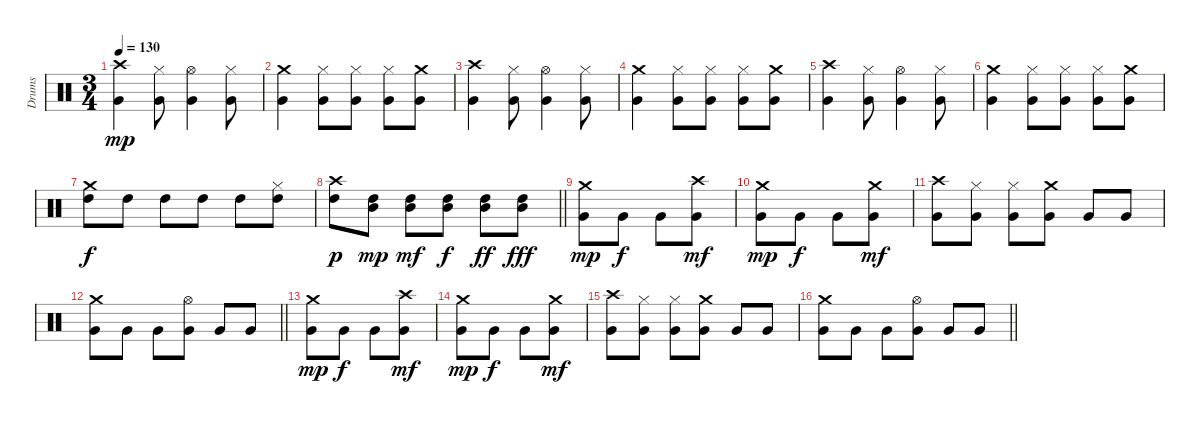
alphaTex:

\track ("Drums" "Drums") {instrument percussion}
\staff {score}
\articulation defaults
\ts (3 4)
\section ("" "")
\tempo 130
\clef neutral
\ks c
("Crash high (hit)" "Very Low Tom (hit)").4{dy mp} ("Hi-Hat (closed)" "Very Low Tom (hit)").8 ("Hi-Hat (open)" "Very Low Tom (hit)").4 ("Hi-Hat (closed)" "Very Low Tom (hit)").8 |
("Crash medium (hit)" "Very Low Tom (hit)").4 ("Hi-Hat (closed)" "Very Low Tom (hit)").8 ("Hi-Hat (closed)" "Very Low Tom (hit)").8 ("Hi-Hat (closed)" "Very Low Tom (hit)").8 ("Crash medium (hit)" "Very Low Tom (hit)").8 |
("Crash high (hit)" "Very Low Tom (hit)").4 ("Hi-Hat (closed)" "Very Low Tom (hit)").8 ("Hi-Hat (open)" "Very Low Tom (hit)").4 ("Hi-Hat (closed)" "Very Low Tom (hit)").8 |
("Crash medium (hit)" "Very Low Tom (hit)").4 ("Hi-Hat (closed)" "Very Low Tom (hit)").8 ("Hi-Hat (closed)" "Very Low Tom (hit)").8 ("Hi-Hat (closed)" "Very Low Tom (hit)").8 ("Crash medium (hit)" "Very Low Tom (hit)").8 |
("Crash high (hit)" "Very Low Tom (hit)").4 ("Hi-Hat (closed)" "Very Low Tom (hit)").8 ("Hi-Hat (open)" "Very Low Tom (hit)").4 ("Hi-Hat (closed)" "Very Low Tom (hit)").8 |
("Crash medium (hit)" "Very Low Tom (hit)").4 ("Hi-Hat (closed)" "Very Low Tom (hit)").8 ("Hi-Hat (closed)" "Very Low Tom (hit)").8 ("Hi-Hat (closed)" "Very Low Tom (hit)").8 ("Crash medium (hit)" "Very Low Tom (hit)").8 |
("Crash medium (hit)" "High Tom (hit)").8{dy f} "High Tom (hit)".8 "High Tom (hit)".8 "High Tom (hit)".8 "High Tom (hit)".8 ("Hi-Hat (closed)" "High Tom (hit)").8 |
\barLineRight lightlight
("Crash high (hit)" "High Tom (hit)").8{dy p} ("High Tom (hit)" "Mid Tom (hit)").8{dy mp} ("High Tom (hit)" "Mid Tom (hit)").8{dy mf} ("High Tom (hit)" "Mid Tom (hit)").8{dy f} ("High Tom (hit)" "Mid Tom (hit)").8{dy ff} ("High Tom (hit)" "Mid Tom (hit)").8{dy fff} |
\section ("" "")
("Crash medium (hit)" "Very Low Tom (hit)").8{dy mp} "Very Low Tom (hit)".8{dy f} "Very Low Tom (hit)".8 ("Crash high (hit)" "Very Low Tom (hit)").8{dy mf} |
("Crash medium (hit)" "Very Low Tom (hit)").8{dy mp} "Very Low Tom (hit)".8{dy f} "Very Low Tom (hit)".8 ("Crash medium (hit)" "Very Low Tom (hit)").8{dy mf} |
("Crash high (hit)" "Very Low Tom (hit)").8 ("Hi-Hat (closed)" "Very Low Tom (hit)").8 ("Hi-Hat (closed)" "Very Low Tom (hit)").8 ("Crash medium (hit)" "Very Low Tom (hit)").8 "Very Low Tom (hit)".8 "Very Low Tom (hit)".8 |
\barLineRight lightlight
("Crash medium (hit)" "Very Low Tom (hit)").8 "Very Low Tom (hit)".8 "Very Low Tom (hit)".8 ("Hi-Hat (open)" "Very Low Tom (hit)").8 "Very Low Tom (hit)".8 "Very Low Tom (hit)".8 |
("Crash medium (hit)" "Very Low Tom (hit)").8{dy mp} "Very Low Tom (hit)".8{dy f} "Very Low Tom (hit)".8 ("Crash high (hit)" "Very Low Tom (hit)").8{dy mf} |
("Crash medium (hit)" "Very Low Tom (hit)").8{dy mp} "Very Low Tom (hit)".8{dy f} "Very Low Tom (hit)".8 ("Crash medium (hit)" "Very Low Tom (hit)").8{dy mf} |
("Crash high (hit)" "Very Low Tom (hit)").8 ("Hi-Hat (closed)" "Very Low Tom (hit)").8 ("Hi-Hat (closed)" "Very Low Tom (hit)").8 ("Crash medium (hit)" "Very Low Tom (hit)").8 "Very Low Tom (hit)".8 "Very Low Tom (hit)".8 |
\barLineRight lightlight
("Crash medium (hit)" "Very Low Tom (hit)").8 "Very Low Tom (hit)".8 "Very Low Tom (hit)".8 ("Hi-Hat (open)" "Very Low Tom (hit)").8 "Very Low Tom (hit)".8 "Very Low Tom (hit)".8
